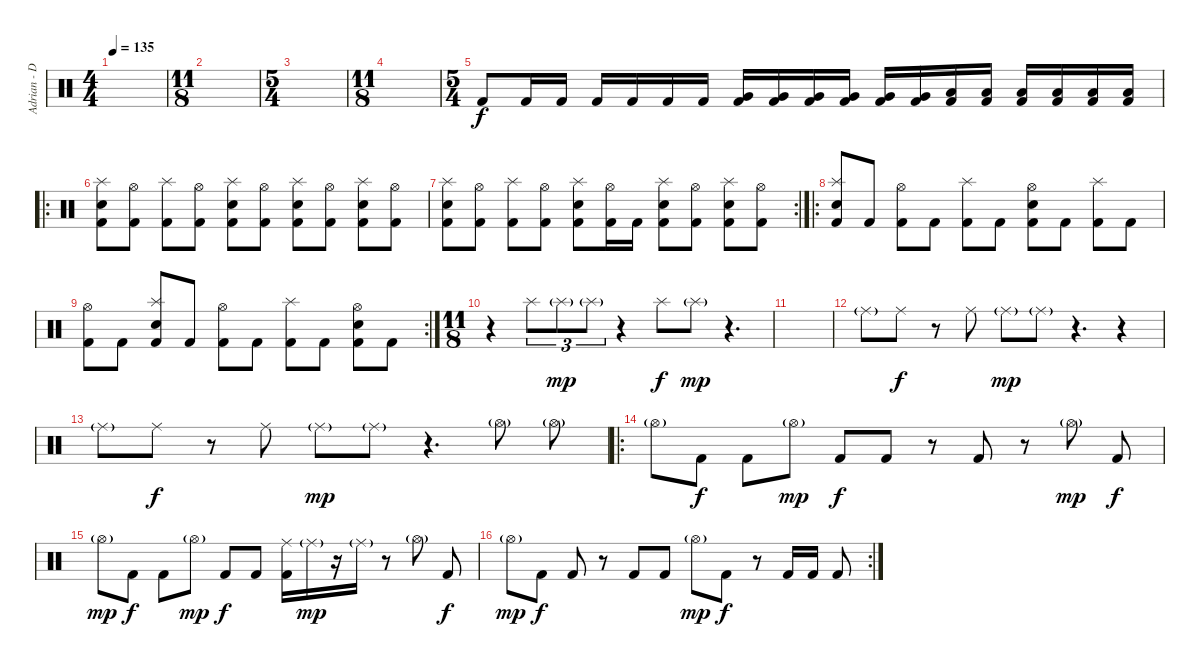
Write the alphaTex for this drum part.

\track ("Adrian - Drums" "Adrian - D") {instrument percussion}
\staff {score}
\articulation defaults
\ts (4 4)
\tempo 135
\clef neutral
\ks c
|
\ts (11 8)
|
\ts (5 4)
|
\ts (11 8)
|
\ts (5 4)
"Kick (hit) 2".8 "Kick (hit) 2".16 "Kick (hit) 2".16 "Kick (hit) 2".16 "Kick (hit) 2".16 "Kick (hit) 2".16 "Kick (hit) 2".16 ("Very Low Tom (hit)" "Kick (hit) 2").16 ("Very Low Tom (hit)" "Kick (hit) 2").16 ("Very Low Tom (hit)" "Kick (hit) 2").16 ("Very Low Tom (hit)" "Kick (hit) 2").16 ("Very Low Tom (hit)" "Kick (hit) 2").16 ("Very Low Tom (hit)" "Kick (hit) 2").16 ("Low Tom (hit)" "Kick (hit) 2").16 ("Low Tom (hit)" "Kick (hit) 2").16 ("Low Tom (hit)" "Kick (hit) 2").16 ("Low Tom (hit)" "Kick (hit) 2").16 ("Low Tom (hit)" "Kick (hit) 2").16 ("Low Tom (hit)" "Kick (hit) 2").16 |
\ro
("Splash (hit)" "Snare (hit) 2" "Kick (hit) 2").8 ("Hi-Hat (open)" "Kick (hit) 2").8 ("Splash (hit)" "Kick (hit) 2").8 ("Hi-Hat (open)" "Kick (hit) 2").8 ("Splash (hit)" "Snare (hit) 2" "Kick (hit) 2").8 ("Hi-Hat (open)" "Kick (hit) 2").8 ("Splash (hit)" "Snare (hit) 2" "Kick (hit) 2").8 ("Hi-Hat (open)" "Kick (hit) 2").8 ("Splash (hit)" "Snare (hit) 2" "Kick (hit) 2").8 ("Hi-Hat (open)" "Kick (hit) 2").8 |
\rc 2
("Splash (hit)" "Snare (hit) 2" "Kick (hit) 2").8 ("Hi-Hat (open)" "Kick (hit) 2").8 ("Splash (hit)" "Kick (hit) 2").8 ("Hi-Hat (open)" "Kick (hit) 2").8 ("Splash (hit)" "Snare (hit) 2" "Kick (hit) 2").8 ("Hi-Hat (open)" "Kick (hit) 2").16 "Kick (hit) 2".16 ("Splash (hit)" "Snare (hit) 2" "Kick (hit) 2").8 ("Hi-Hat (open)" "Kick (hit) 2").8 ("Splash (hit)" "Snare (hit) 2" "Kick (hit) 2").8 ("Hi-Hat (open)" "Kick (hit) 2").8 |
\ro
("Splash (hit)" "Snare (hit) 2" "Kick (hit) 2").8 "Kick (hit) 2".8 ("Hi-Hat (open)" "Kick (hit) 2").8 "Kick (hit) 2".8 ("Splash (hit)" "Kick (hit) 2").8 "Kick (hit) 2".8 ("Hi-Hat (open)" "Snare (hit) 2" "Kick (hit) 2").8 "Kick (hit) 2".8 ("Splash (hit)" "Kick (hit) 2").8 "Kick (hit) 2".8 |
\rc 2
("Hi-Hat (open)" "Kick (hit) 2").8 "Kick (hit) 2".8 ("Splash (hit)" "Snare (hit) 2" "Kick (hit) 2").8 "Kick (hit) 2".8 ("Hi-Hat (open)" "Kick (hit) 2").8 "Kick (hit) 2".8 ("Splash (hit)" "Kick (hit) 2").8 "Kick (hit) 2".8 ("Hi-Hat (open)" "Snare (hit) 2" "Kick (hit) 2").8 "Kick (hit) 2".8 |
\ts (11 8)
r.4 "Splash (hit)".8{tu (3 2)} "Splash (hit)"{g}.8{tu (3 2) dy mp} "Splash (hit)"{g}.8{tu (3 2)} r.4 "Splash (hit)".8{dy f} "Splash (hit)"{g}.8{dy mp} r.4{d} |
|
"Ride (middle)"{g}.8 "Ride (middle)".8{dy f} r.8 "Ride (middle)".8 "Ride (middle)"{g}.8{dy mp} "Ride (middle)"{g}.8 r.4{d} r.4 |
"Ride (middle)"{g}.8 "Ride (middle)".8{dy f} r.8 "Ride (middle)".8 "Ride (middle)"{g}.8{dy mp} "Ride (middle)"{g}.8 r.4{d} "Hi-Hat (open)"{g}.8 "Hi-Hat (open)"{g}.8 |
\ro "Hi-Hat (open)"{g}.8 "Kick (hit) 2".8{dy f} "Kick (hit) 2".8 "Hi-Hat (open)"{g}.8{dy mp} "Kick (hit) 2".8{dy f} "Kick (hit) 2".8
r.8 "Kick (hit) 2".8 r.8 "Hi-Hat (open)"{g}.8{dy mp} "Kick (hit) 2".8{dy f} |
"Hi-Hat (open)"{g}.8{dy mp} "Kick (hit) 2".8{dy f} "Kick (hit) 2".8 "Hi-Hat (open)"{g}.8{dy mp} "Kick (hit) 2".8{dy f} "Kick (hit) 2".8 ("Ride (middle)" "Kick (hit) 2").16 "Ride (middle)"{g}.16{dy mp} r.16 "Ride (middle)"{g}.16 r.8 "Hi-Hat (open)"{g}.8 "Kick (hit) 2".8{dy f} |
\rc 2 "Hi-Hat (open)"{g}.8{dy mp} "Kick (hit) 2".8{dy f} "Kick (hit) 2".8
r.8 "Kick (hit) 2".8 "Kick (hit) 2".8 "Hi-Hat (open)"{g}.8{dy mp} "Kick (hit) 2".8{dy f} r.8 "Kick (hit) 2".16 "Kick (hit) 2".16 "Kick (hit) 2".8
